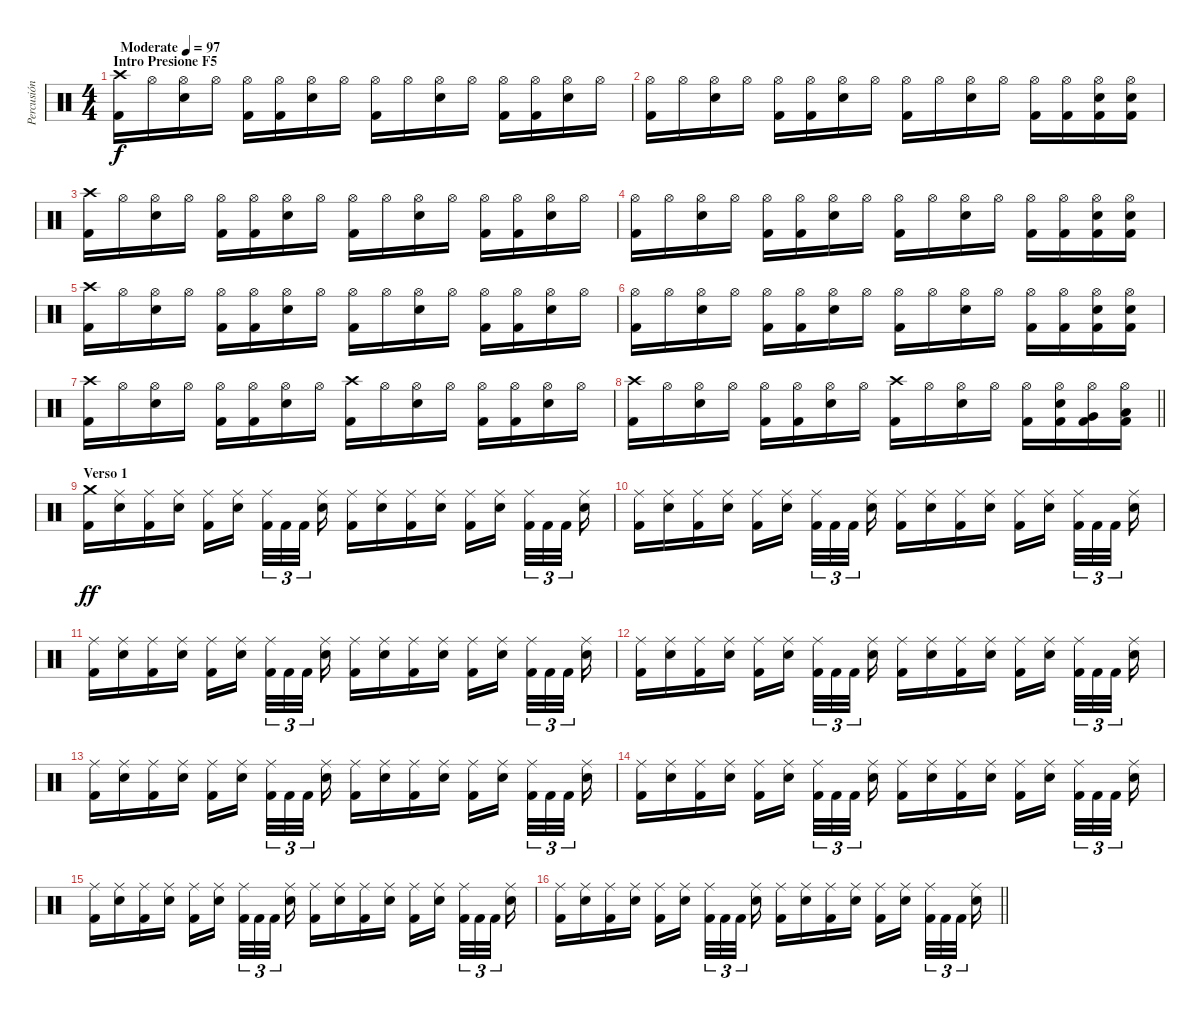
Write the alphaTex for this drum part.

\track ("Percusión" "Percusión") {instrument percussion}
\staff {score}
\articulation defaults
\ts (4 4)
\section ("" "Intro Presione F5 ")
\tempo (97 "Moderate")
\clef neutral
\ks c
("Crash high (hit)" "Kick (hit) 2").16{dy f} "Hi-Hat (open)".16 ("Hi-Hat (open)" "Snare (hit) 2").16 "Hi-Hat (open)".16 ("Hi-Hat (open)" "Kick (hit) 2").16 ("Hi-Hat (open)" "Kick (hit) 2").16 ("Hi-Hat (open)" "Snare (hit) 2").16 "Hi-Hat (open)".16 ("Hi-Hat (open)" "Kick (hit) 2").16 "Hi-Hat (open)".16 ("Hi-Hat (open)" "Snare (hit) 2").16 "Hi-Hat (open)".16 ("Hi-Hat (open)" "Kick (hit) 2").16 ("Hi-Hat (open)" "Kick (hit) 2").16 ("Hi-Hat (open)" "Snare (hit) 2").16 "Hi-Hat (open)".16 |
("Hi-Hat (open)" "Kick (hit) 2").16 "Hi-Hat (open)".16 ("Hi-Hat (open)" "Snare (hit) 2").16 "Hi-Hat (open)".16 ("Hi-Hat (open)" "Kick (hit) 2").16 ("Hi-Hat (open)" "Kick (hit) 2").16 ("Hi-Hat (open)" "Snare (hit) 2").16 "Hi-Hat (open)".16 ("Hi-Hat (open)" "Kick (hit) 2").16 "Hi-Hat (open)".16 ("Hi-Hat (open)" "Snare (hit) 2").16 "Hi-Hat (open)".16 ("Hi-Hat (open)" "Kick (hit) 2").16 ("Hi-Hat (open)" "Kick (hit) 2").16 ("Hi-Hat (open)" "Snare (hit) 2" "Kick (hit) 2").16 ("Hi-Hat (open)" "Snare (hit) 2" "Kick (hit) 2").16 |
("Crash high (hit)" "Kick (hit) 2").16 "Hi-Hat (open)".16 ("Hi-Hat (open)" "Snare (hit) 2").16 "Hi-Hat (open)".16 ("Hi-Hat (open)" "Kick (hit) 2").16 ("Hi-Hat (open)" "Kick (hit) 2").16 ("Hi-Hat (open)" "Snare (hit) 2").16 "Hi-Hat (open)".16 ("Hi-Hat (open)" "Kick (hit) 2").16 "Hi-Hat (open)".16 ("Hi-Hat (open)" "Snare (hit) 2").16 "Hi-Hat (open)".16 ("Hi-Hat (open)" "Kick (hit) 2").16 ("Hi-Hat (open)" "Kick (hit) 2").16 ("Hi-Hat (open)" "Snare (hit) 2").16 "Hi-Hat (open)".16 |
("Hi-Hat (open)" "Kick (hit) 2").16 "Hi-Hat (open)".16 ("Hi-Hat (open)" "Snare (hit) 2").16 "Hi-Hat (open)".16 ("Hi-Hat (open)" "Kick (hit) 2").16 ("Hi-Hat (open)" "Kick (hit) 2").16 ("Hi-Hat (open)" "Snare (hit) 2").16 "Hi-Hat (open)".16 ("Hi-Hat (open)" "Kick (hit) 2").16 "Hi-Hat (open)".16 ("Hi-Hat (open)" "Snare (hit) 2").16 "Hi-Hat (open)".16 ("Hi-Hat (open)" "Kick (hit) 2").16 ("Hi-Hat (open)" "Kick (hit) 2").16 ("Hi-Hat (open)" "Snare (hit) 2" "Kick (hit) 2").16 ("Hi-Hat (open)" "Snare (hit) 2" "Kick (hit) 2").16 |
("Crash high (hit)" "Kick (hit) 2").16 "Hi-Hat (open)".16 ("Hi-Hat (open)" "Snare (hit) 2").16 "Hi-Hat (open)".16 ("Hi-Hat (open)" "Kick (hit) 2").16 ("Hi-Hat (open)" "Kick (hit) 2").16 ("Hi-Hat (open)" "Snare (hit) 2").16 "Hi-Hat (open)".16 ("Hi-Hat (open)" "Kick (hit) 2").16 "Hi-Hat (open)".16 ("Hi-Hat (open)" "Snare (hit) 2").16 "Hi-Hat (open)".16 ("Hi-Hat (open)" "Kick (hit) 2").16 ("Hi-Hat (open)" "Kick (hit) 2").16 ("Hi-Hat (open)" "Snare (hit) 2").16 "Hi-Hat (open)".16 |
("Hi-Hat (open)" "Kick (hit) 2").16 "Hi-Hat (open)".16 ("Hi-Hat (open)" "Snare (hit) 2").16 "Hi-Hat (open)".16 ("Hi-Hat (open)" "Kick (hit) 2").16 ("Hi-Hat (open)" "Kick (hit) 2").16 ("Hi-Hat (open)" "Snare (hit) 2").16 "Hi-Hat (open)".16 ("Hi-Hat (open)" "Kick (hit) 2").16 "Hi-Hat (open)".16 ("Hi-Hat (open)" "Snare (hit) 2").16 "Hi-Hat (open)".16 ("Hi-Hat (open)" "Kick (hit) 2").16 ("Hi-Hat (open)" "Kick (hit) 2").16 ("Hi-Hat (open)" "Snare (hit) 2" "Kick (hit) 2").16 ("Hi-Hat (open)" "Snare (hit) 2" "Kick (hit) 2").16 |
("Crash high (hit)" "Kick (hit) 2").16 "Hi-Hat (open)".16 ("Hi-Hat (open)" "Snare (hit) 2").16 "Hi-Hat (open)".16 ("Hi-Hat (open)" "Kick (hit) 2").16 ("Hi-Hat (open)" "Kick (hit) 2").16 ("Hi-Hat (open)" "Snare (hit) 2").16 "Hi-Hat (open)".16 ("Crash high (hit)" "Kick (hit) 2").16 "Hi-Hat (open)".16 ("Hi-Hat (open)" "Snare (hit) 2").16 "Hi-Hat (open)".16 ("Hi-Hat (open)" "Kick (hit) 2").16 ("Hi-Hat (open)" "Kick (hit) 2").16 ("Hi-Hat (open)" "Snare (hit) 2").16 "Hi-Hat (open)".16 |
\barLineRight lightlight
("Crash high (hit)" "Kick (hit) 2").16 "Hi-Hat (open)".16 ("Hi-Hat (open)" "Snare (hit) 2").16 "Hi-Hat (open)".16 ("Hi-Hat (open)" "Kick (hit) 2").16 ("Hi-Hat (open)" "Kick (hit) 2").16 ("Hi-Hat (open)" "Snare (hit) 2").16 "Hi-Hat (open)".16 ("Crash high (hit)" "Kick (hit) 2").16 "Hi-Hat (open)".16 ("Hi-Hat (open)" "Snare (hit) 2").16 "Hi-Hat (open)".16 ("Hi-Hat (open)" "Kick (hit) 2").16 ("Hi-Hat (open)" "Snare (hit) 2" "Kick (hit) 2").16 ("Hi-Hat (open)" "Very Low Tom (hit)" "Kick (hit) 2").16 ("Hi-Hat (open)" "Low Tom (hit)" "Kick (hit) 2").16 |
\section ("" "Verso 1")
("Crash medium (hit)" "Kick (hit) 2").16{dy ff} ("Ride (middle)" "Snare (hit) 2").16 ("Ride (middle)" "Kick (hit) 2").16 ("Ride (middle)" "Snare (hit) 2").16 ("Ride (middle)" "Kick (hit) 2").16 ("Ride (middle)" "Snare (hit) 2").16{beam splitsecondary} ("Ride (middle)" "Kick (hit) 2").32{tu (3 2)} "Kick (hit) 2".32{tu (3 2)} "Kick (hit) 2".32{tu (3 2) beam splitsecondary} ("Ride (middle)" "Snare (hit) 2").16 ("Ride (middle)" "Kick (hit) 2").16 ("Ride (middle)" "Snare (hit) 2").16 ("Ride (middle)" "Kick (hit) 2").16 ("Ride (middle)" "Snare (hit) 2").16 ("Ride (middle)" "Kick (hit) 2").16 ("Ride (middle)" "Snare (hit) 2").16{beam splitsecondary} ("Ride (middle)" "Kick (hit) 2").32{tu (3 2)} "Kick (hit) 2".32{tu (3 2)} "Kick (hit) 2".32{tu (3 2) beam splitsecondary} ("Ride (middle)" "Snare (hit) 2").16 |
("Ride (middle)" "Kick (hit) 2").16 ("Ride (middle)" "Snare (hit) 2").16 ("Ride (middle)" "Kick (hit) 2").16 ("Ride (middle)" "Snare (hit) 2").16 ("Ride (middle)" "Kick (hit) 2").16 ("Ride (middle)" "Snare (hit) 2").16{beam splitsecondary} ("Ride (middle)" "Kick (hit) 2").32{tu (3 2)} "Kick (hit) 2".32{tu (3 2)} "Kick (hit) 2".32{tu (3 2) beam splitsecondary} ("Ride (middle)" "Snare (hit) 2").16 ("Ride (middle)" "Kick (hit) 2").16 ("Ride (middle)" "Snare (hit) 2").16 ("Ride (middle)" "Kick (hit) 2").16 ("Ride (middle)" "Snare (hit) 2").16 ("Ride (middle)" "Kick (hit) 2").16 ("Ride (middle)" "Snare (hit) 2").16{beam splitsecondary} ("Ride (middle)" "Kick (hit) 2").32{tu (3 2)} "Kick (hit) 2".32{tu (3 2)} "Kick (hit) 2".32{tu (3 2) beam splitsecondary} ("Ride (middle)" "Snare (hit) 2").16 |
("Ride (middle)" "Kick (hit) 2").16 ("Ride (middle)" "Snare (hit) 2").16 ("Ride (middle)" "Kick (hit) 2").16 ("Ride (middle)" "Snare (hit) 2").16 ("Ride (middle)" "Kick (hit) 2").16 ("Ride (middle)" "Snare (hit) 2").16{beam splitsecondary} ("Ride (middle)" "Kick (hit) 2").32{tu (3 2)} "Kick (hit) 2".32{tu (3 2)} "Kick (hit) 2".32{tu (3 2) beam splitsecondary} ("Ride (middle)" "Snare (hit) 2").16 ("Ride (middle)" "Kick (hit) 2").16 ("Ride (middle)" "Snare (hit) 2").16 ("Ride (middle)" "Kick (hit) 2").16 ("Ride (middle)" "Snare (hit) 2").16 ("Ride (middle)" "Kick (hit) 2").16 ("Ride (middle)" "Snare (hit) 2").16{beam splitsecondary} ("Ride (middle)" "Kick (hit) 2").32{tu (3 2)} "Kick (hit) 2".32{tu (3 2)} "Kick (hit) 2".32{tu (3 2) beam splitsecondary} ("Ride (middle)" "Snare (hit) 2").16 |
("Ride (middle)" "Kick (hit) 2").16 ("Ride (middle)" "Snare (hit) 2").16 ("Ride (middle)" "Kick (hit) 2").16 ("Ride (middle)" "Snare (hit) 2").16 ("Ride (middle)" "Kick (hit) 2").16 ("Ride (middle)" "Snare (hit) 2").16{beam splitsecondary} ("Ride (middle)" "Kick (hit) 2").32{tu (3 2)} "Kick (hit) 2".32{tu (3 2)} "Kick (hit) 2".32{tu (3 2) beam splitsecondary} ("Ride (middle)" "Snare (hit) 2").16 ("Ride (middle)" "Kick (hit) 2").16 ("Ride (middle)" "Snare (hit) 2").16 ("Ride (middle)" "Kick (hit) 2").16 ("Ride (middle)" "Snare (hit) 2").16 ("Ride (middle)" "Kick (hit) 2").16 ("Ride (middle)" "Snare (hit) 2").16{beam splitsecondary} ("Ride (middle)" "Kick (hit) 2").32{tu (3 2)} "Kick (hit) 2".32{tu (3 2)} "Kick (hit) 2".32{tu (3 2) beam splitsecondary} ("Ride (middle)" "Snare (hit) 2").16 |
("Ride (middle)" "Kick (hit) 2").16 ("Ride (middle)" "Snare (hit) 2").16 ("Ride (middle)" "Kick (hit) 2").16 ("Ride (middle)" "Snare (hit) 2").16 ("Ride (middle)" "Kick (hit) 2").16 ("Ride (middle)" "Snare (hit) 2").16{beam splitsecondary} ("Ride (middle)" "Kick (hit) 2").32{tu (3 2)} "Kick (hit) 2".32{tu (3 2)} "Kick (hit) 2".32{tu (3 2) beam splitsecondary} ("Ride (middle)" "Snare (hit) 2").16 ("Ride (middle)" "Kick (hit) 2").16 ("Ride (middle)" "Snare (hit) 2").16 ("Ride (middle)" "Kick (hit) 2").16 ("Ride (middle)" "Snare (hit) 2").16 ("Ride (middle)" "Kick (hit) 2").16 ("Ride (middle)" "Snare (hit) 2").16{beam splitsecondary} ("Ride (middle)" "Kick (hit) 2").32{tu (3 2)} "Kick (hit) 2".32{tu (3 2)} "Kick (hit) 2".32{tu (3 2) beam splitsecondary} ("Ride (middle)" "Snare (hit) 2").16 |
("Ride (middle)" "Kick (hit) 2").16 ("Ride (middle)" "Snare (hit) 2").16 ("Ride (middle)" "Kick (hit) 2").16 ("Ride (middle)" "Snare (hit) 2").16 ("Ride (middle)" "Kick (hit) 2").16 ("Ride (middle)" "Snare (hit) 2").16{beam splitsecondary} ("Ride (middle)" "Kick (hit) 2").32{tu (3 2)} "Kick (hit) 2".32{tu (3 2)} "Kick (hit) 2".32{tu (3 2) beam splitsecondary} ("Ride (middle)" "Snare (hit) 2").16 ("Ride (middle)" "Kick (hit) 2").16 ("Ride (middle)" "Snare (hit) 2").16 ("Ride (middle)" "Kick (hit) 2").16 ("Ride (middle)" "Snare (hit) 2").16 ("Ride (middle)" "Kick (hit) 2").16 ("Ride (middle)" "Snare (hit) 2").16{beam splitsecondary} ("Ride (middle)" "Kick (hit) 2").32{tu (3 2)} "Kick (hit) 2".32{tu (3 2)} "Kick (hit) 2".32{tu (3 2) beam splitsecondary} ("Ride (middle)" "Snare (hit) 2").16 |
("Ride (middle)" "Kick (hit) 2").16 ("Ride (middle)" "Snare (hit) 2").16 ("Ride (middle)" "Kick (hit) 2").16 ("Ride (middle)" "Snare (hit) 2").16 ("Ride (middle)" "Kick (hit) 2").16 ("Ride (middle)" "Snare (hit) 2").16{beam splitsecondary} ("Ride (middle)" "Kick (hit) 2").32{tu (3 2)} "Kick (hit) 2".32{tu (3 2)} "Kick (hit) 2".32{tu (3 2) beam splitsecondary} ("Ride (middle)" "Snare (hit) 2").16 ("Ride (middle)" "Kick (hit) 2").16 ("Ride (middle)" "Snare (hit) 2").16 ("Ride (middle)" "Kick (hit) 2").16 ("Ride (middle)" "Snare (hit) 2").16 ("Ride (middle)" "Kick (hit) 2").16 ("Ride (middle)" "Snare (hit) 2").16{beam splitsecondary} ("Ride (middle)" "Kick (hit) 2").32{tu (3 2)} "Kick (hit) 2".32{tu (3 2)} "Kick (hit) 2".32{tu (3 2) beam splitsecondary} ("Ride (middle)" "Snare (hit) 2").16 |
\barLineRight lightlight
("Ride (middle)" "Kick (hit) 2").16 ("Ride (middle)" "Snare (hit) 2").16 ("Ride (middle)" "Kick (hit) 2").16 ("Ride (middle)" "Snare (hit) 2").16 ("Ride (middle)" "Kick (hit) 2").16 ("Ride (middle)" "Snare (hit) 2").16{beam splitsecondary} ("Ride (middle)" "Kick (hit) 2").32{tu (3 2)} "Kick (hit) 2".32{tu (3 2)} "Kick (hit) 2".32{tu (3 2) beam splitsecondary} ("Ride (middle)" "Snare (hit) 2").16 ("Ride (middle)" "Kick (hit) 2").16 ("Ride (middle)" "Snare (hit) 2").16 ("Ride (middle)" "Kick (hit) 2").16 ("Ride (middle)" "Snare (hit) 2").16 ("Ride (middle)" "Kick (hit) 2").16 ("Ride (middle)" "Snare (hit) 2").16{beam splitsecondary} ("Ride (middle)" "Kick (hit) 2").32{tu (3 2)} "Kick (hit) 2".32{tu (3 2)} "Kick (hit) 2".32{tu (3 2) beam splitsecondary} ("Ride (middle)" "Snare (hit) 2").16
